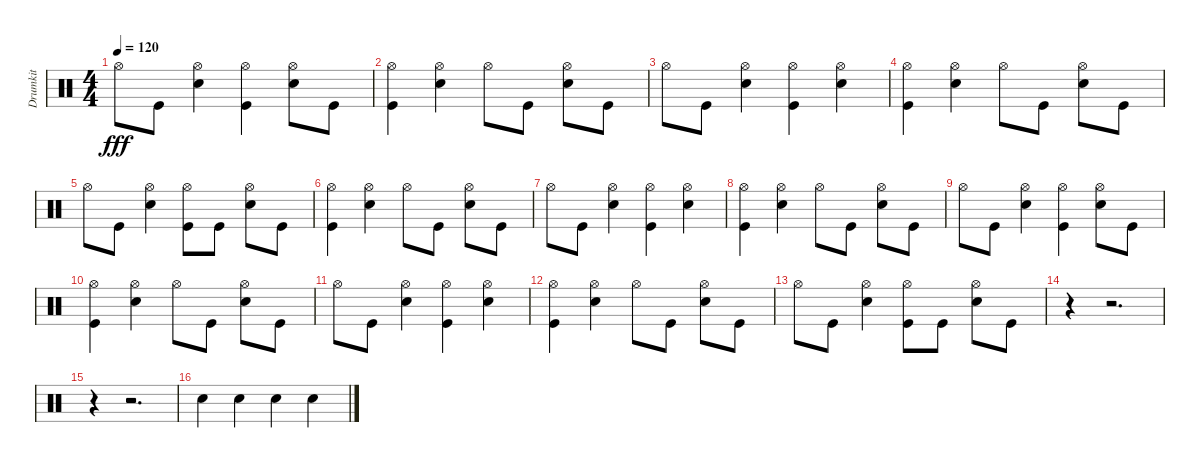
\track ("Drumkit" "Drumkit") {instrument percussion}
\staff {score}
\articulation defaults
\ts (4 4)
\tempo 120
\clef neutral
\ks c "Hi-Hat (open)".8{dy fff} "Kick (hit)".8
("Snare (hit) 2" "Hi-Hat (open)").4 ("Hi-Hat (open)" "Kick (hit)").4 ("Hi-Hat (open)" "Snare (hit) 2").8 "Kick (hit)".8 |
("Kick (hit)" "Hi-Hat (open)").4 ("Snare (hit) 2" "Hi-Hat (open)").4 "Hi-Hat (open)".8 "Kick (hit)".8 ("Hi-Hat (open)" "Snare (hit) 2").8 "Kick (hit)".8 |
"Hi-Hat (open)".8 "Kick (hit)".8 ("Snare (hit) 2" "Hi-Hat (open)").4 ("Hi-Hat (open)" "Kick (hit)").4 ("Hi-Hat (open)" "Snare (hit) 2").4 |
("Kick (hit)" "Hi-Hat (open)").4 ("Snare (hit) 2" "Hi-Hat (open)").4 "Hi-Hat (open)".8 "Kick (hit)".8 ("Hi-Hat (open)" "Snare (hit) 2").8 "Kick (hit)".8 |
"Hi-Hat (open)".8 "Kick (hit)".8 ("Snare (hit) 2" "Hi-Hat (open)").4 ("Hi-Hat (open)" "Kick (hit)").8 "Kick (hit)".8 ("Hi-Hat (open)" "Snare (hit) 2").8 "Kick (hit)".8 |
("Kick (hit)" "Hi-Hat (open)").4 ("Snare (hit) 2" "Hi-Hat (open)").4 "Hi-Hat (open)".8 "Kick (hit)".8 ("Hi-Hat (open)" "Snare (hit) 2").8 "Kick (hit)".8 |
"Hi-Hat (open)".8 "Kick (hit)".8 ("Snare (hit) 2" "Hi-Hat (open)").4 ("Hi-Hat (open)" "Kick (hit)").4 ("Hi-Hat (open)" "Snare (hit) 2").4 |
("Kick (hit)" "Hi-Hat (open)").4 ("Snare (hit) 2" "Hi-Hat (open)").4 "Hi-Hat (open)".8 "Kick (hit)".8 ("Hi-Hat (open)" "Snare (hit) 2").8 "Kick (hit)".8 |
"Hi-Hat (open)".8 "Kick (hit)".8 ("Snare (hit) 2" "Hi-Hat (open)").4 ("Hi-Hat (open)" "Kick (hit)").4 ("Hi-Hat (open)" "Snare (hit) 2").8 "Kick (hit)".8 |
("Kick (hit)" "Hi-Hat (open)").4 ("Snare (hit) 2" "Hi-Hat (open)").4 "Hi-Hat (open)".8 "Kick (hit)".8 ("Hi-Hat (open)" "Snare (hit) 2").8 "Kick (hit)".8 |
"Hi-Hat (open)".8 "Kick (hit)".8 ("Snare (hit) 2" "Hi-Hat (open)").4 ("Hi-Hat (open)" "Kick (hit)").4 ("Hi-Hat (open)" "Snare (hit) 2").4 |
("Kick (hit)" "Hi-Hat (open)").4 ("Snare (hit) 2" "Hi-Hat (open)").4 "Hi-Hat (open)".8 "Kick (hit)".8 ("Hi-Hat (open)" "Snare (hit) 2").8 "Kick (hit)".8 |
"Hi-Hat (open)".8 "Kick (hit)".8 ("Snare (hit) 2" "Hi-Hat (open)").4 ("Hi-Hat (open)" "Kick (hit)").8 "Kick (hit)".8 ("Hi-Hat (open)" "Snare (hit) 2").8 "Kick (hit)".8 |
r.4 r.2{d} |
r.4 r.2{d} |
"Snare (hit) 2".4 "Snare (hit) 2".4 "Snare (hit) 2".4 "Snare (hit) 2".4
